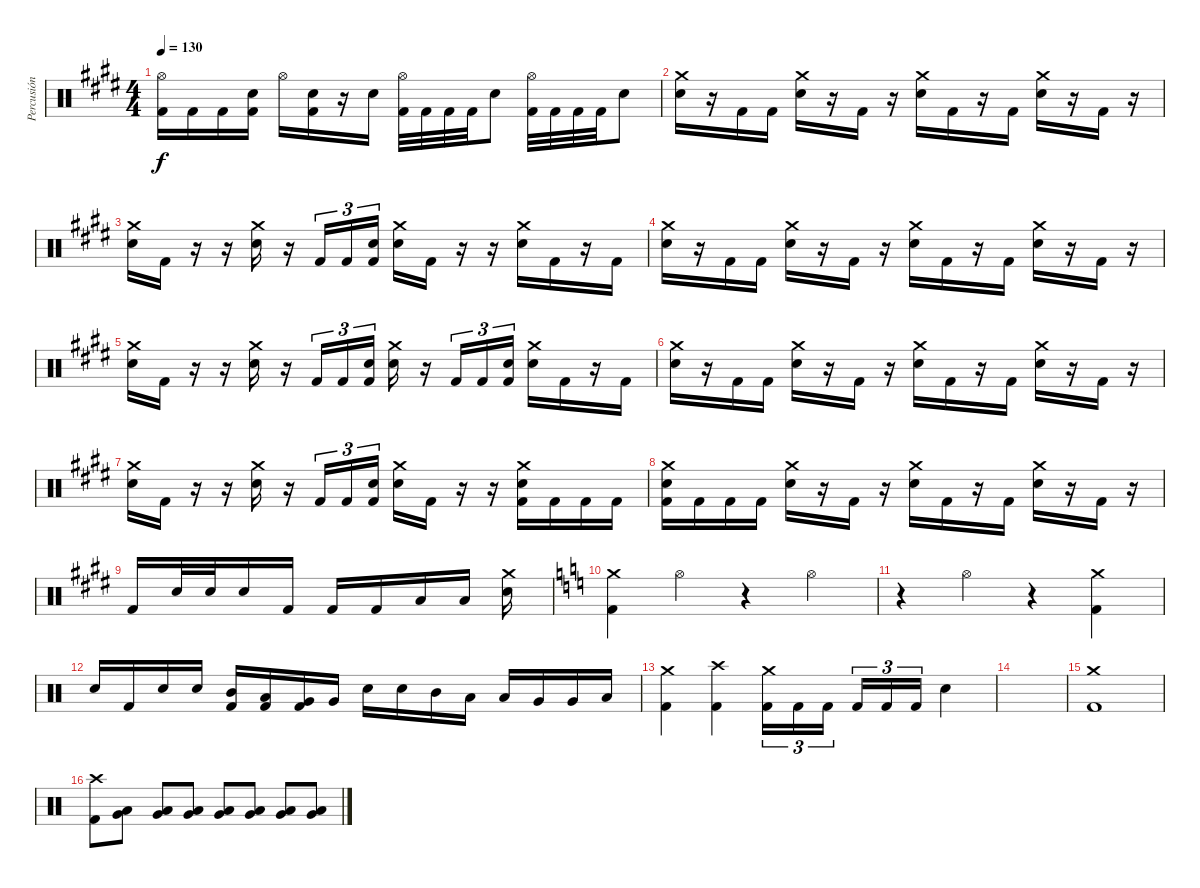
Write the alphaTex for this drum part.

\track ("Percusión" "Percusión") {instrument percussion}
\staff {score}
\articulation defaults
\ts (4 4)
\tempo 130
\clef neutral
\ks c#minor
("Hi-Hat (open)" "Kick (hit) 2").16{dy f} "Kick (hit) 2".16 "Kick (hit) 2".16 ("Electric Snare (hit)" "Kick (hit) 2").16 "Hi-Hat (open)".16 ("Electric Snare (hit)" "Kick (hit) 2").16 r.16 "Electric Snare (hit)".16 ("Hi-Hat (open)" "Kick (hit) 2").32 "Kick (hit) 2".32 "Kick (hit) 2".32 "Kick (hit) 2".32 "Electric Snare (hit)".8 ("Hi-Hat (open)" "Kick (hit) 2").32 "Kick (hit) 2".32 "Kick (hit) 2".32 "Kick (hit) 2".32 "Electric Snare (hit)".8 |
("Crash medium (hit)" "Electric Snare (hit)").16 r.16 "Kick (hit) 2".16 "Kick (hit) 2".16 ("Crash medium (hit)" "Electric Snare (hit)").16 r.16 "Kick (hit) 2".16 r.16 ("Crash medium (hit)" "Electric Snare (hit)").16 "Kick (hit) 2".16 r.16 "Kick (hit) 2".16 ("Crash medium (hit)" "Electric Snare (hit)").16 r.16 "Kick (hit) 2".16 r.16 |
("Crash medium (hit)" "Electric Snare (hit)").16 "Kick (hit) 2".16 r.16 r.16 ("Crash medium (hit)" "Electric Snare (hit)").16 r.16 "Kick (hit) 2".16{tu (3 2)} "Kick (hit) 2".16{tu (3 2)} ("Snare (hit)" "Kick (hit) 2").16{tu (3 2)} ("Crash medium (hit)" "Electric Snare (hit)").16 "Kick (hit) 2".16 r.16 r.16 ("Crash medium (hit)" "Electric Snare (hit)").16 "Kick (hit) 2".16 r.16 "Kick (hit) 2".16 |
("Crash medium (hit)" "Electric Snare (hit)").16 r.16 "Kick (hit) 2".16 "Kick (hit) 2".16 ("Crash medium (hit)" "Electric Snare (hit)").16 r.16 "Kick (hit) 2".16 r.16 ("Crash medium (hit)" "Electric Snare (hit)").16 "Kick (hit) 2".16 r.16 "Kick (hit) 2".16 ("Crash medium (hit)" "Electric Snare (hit)").16 r.16 "Kick (hit) 2".16 r.16 |
("Crash medium (hit)" "Electric Snare (hit)").16 "Kick (hit) 2".16 r.16 r.16 ("Crash medium (hit)" "Electric Snare (hit)").16 r.16 "Kick (hit) 2".16{tu (3 2)} "Kick (hit) 2".16{tu (3 2)} ("Snare (hit)" "Kick (hit) 2").16{tu (3 2)} ("Crash medium (hit)" "Electric Snare (hit)").16 r.16 "Kick (hit) 2".16{tu (3 2)} "Kick (hit) 2".16{tu (3 2)} ("Snare (hit)" "Kick (hit) 2").16{tu (3 2)} ("Crash medium (hit)" "Electric Snare (hit)").16 "Kick (hit) 2".16 r.16 "Kick (hit) 2".16 |
("Crash medium (hit)" "Electric Snare (hit)").16 r.16 "Kick (hit) 2".16 "Kick (hit) 2".16 ("Crash medium (hit)" "Electric Snare (hit)").16 r.16 "Kick (hit) 2".16 r.16 ("Crash medium (hit)" "Electric Snare (hit)").16 "Kick (hit) 2".16 r.16 "Kick (hit) 2".16 ("Crash medium (hit)" "Electric Snare (hit)").16 r.16 "Kick (hit) 2".16 r.16 |
("Crash medium (hit)" "Electric Snare (hit)").16 "Kick (hit) 2".16 r.16 r.16 ("Crash medium (hit)" "Electric Snare (hit)").16 r.16 "Kick (hit) 2".16{tu (3 2)} "Kick (hit) 2".16{tu (3 2)} ("Snare (hit)" "Kick (hit) 2").16{tu (3 2)} ("Crash medium (hit)" "Electric Snare (hit)").16 "Kick (hit) 2".16 r.16 r.16 ("Crash medium (hit)" "Electric Snare (hit)" "Kick (hit) 2").16 "Kick (hit) 2".16 "Kick (hit) 2".16 "Kick (hit) 2".16 |
("Crash medium (hit)" "Electric Snare (hit)" "Kick (hit) 2").16 "Kick (hit) 2".16 "Kick (hit) 2".16 "Kick (hit) 2".16 ("Crash medium (hit)" "Electric Snare (hit)").16 r.16 "Kick (hit) 2".16 r.16 ("Crash medium (hit)" "Electric Snare (hit)").16 "Kick (hit) 2".16 r.16 "Kick (hit) 2".16 ("Crash medium (hit)" "Electric Snare (hit)").16 r.16 "Kick (hit) 2".16 r.16 |
"Kick (hit) 2".16 "Electric Snare (hit)".32 "Electric Snare (hit)".32 "Electric Snare (hit)".16 "Kick (hit) 2".16 "Kick (hit) 2".16 "Kick (hit) 2".16 "Low Tom (hit)".16 "Low Tom (hit)".16 ("Crash medium (hit)" "Electric Snare (hit)").16 |
\ks c
("Kick (hit) 2" "Crash medium (hit)").4 "Hi-Hat (open)".4 r.4 "Hi-Hat (open)".4 |
r.4 "Hi-Hat (open)".4 r.4 ("Crash medium (hit)" "Kick (hit) 2").4 |
"Electric Snare (hit)".16 "Kick (hit) 2".16 "Electric Snare (hit)".16 "Electric Snare (hit)".16 ("Mid Tom (hit)" "Kick (hit) 2").16 ("Low Tom (hit)" "Kick (hit) 2").16 ("Very Low Tom (hit)" "Kick (hit) 2").16 "Very Low Tom (hit)".16 "Electric Snare (hit)".16 "Electric Snare (hit)".16 "Mid Tom (hit)".16 "Low Tom (hit)".16 "Low Tom (hit)".16 "Very Low Tom (hit)".16 "Very Low Tom (hit)".16 "Low Floor Tom (hit)".16 |
("Crash medium (hit)" "Kick (hit) 2").4 ("Crash high (hit)" "Kick (hit) 2").4 ("Crash medium (hit)" "Kick (hit) 2").16{tu (3 2)} "Kick (hit) 2".16{tu (3 2)} "Kick (hit) 2".16{tu (3 2)} "Kick (hit) 2".16{tu (3 2)} "Kick (hit) 2".16{tu (3 2)} "Kick (hit) 2".16{tu (3 2)} "Electric Snare (hit)".4 |
|
("Crash medium (hit)" "Kick (hit) 2").1 |
("Kick (hit) 2" "Crash high (hit)").8 ("Low Tom (hit)" "Very Low Tom (hit)").8 ("Low Tom (hit)" "Very Low Tom (hit)").8 ("Low Tom (hit)" "Very Low Tom (hit)").8 ("Low Tom (hit)" "Very Low Tom (hit)").8 ("Low Tom (hit)" "Very Low Tom (hit)").8 ("Low Tom (hit)" "Very Low Tom (hit)").8 ("Low Tom (hit)" "Very Low Tom (hit)").8
